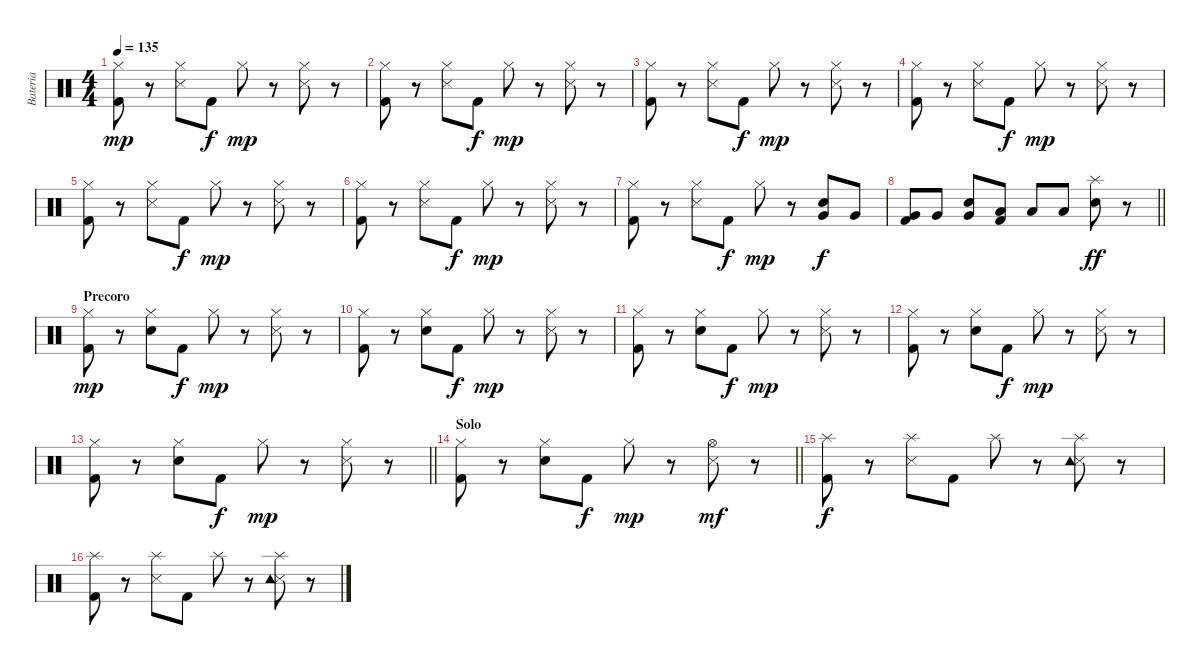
\track ("Bateria" "Bateria") {instrument percussion}
\staff {score}
\articulation defaults
\ts (4 4)
\tempo 135
\clef neutral
\ks c
("Hi-Hat (closed)" "Kick (hit) 2").8{dy mp} r.8 ("Hi-Hat (closed)" "Snare (side stick) 3").8 "Kick (hit) 2".8{dy f} "Hi-Hat (closed)".8{dy mp} r.8 ("Hi-Hat (closed)" "Snare (side stick) 3").8 r.8 |
("Hi-Hat (closed)" "Kick (hit) 2").8 r.8 ("Hi-Hat (closed)" "Snare (side stick) 3").8 "Kick (hit) 2".8{dy f} "Hi-Hat (closed)".8{dy mp} r.8 ("Hi-Hat (closed)" "Snare (side stick) 3").8 r.8 |
("Hi-Hat (closed)" "Kick (hit) 2").8 r.8 ("Hi-Hat (closed)" "Snare (side stick) 3").8 "Kick (hit) 2".8{dy f} "Hi-Hat (closed)".8{dy mp} r.8 ("Hi-Hat (closed)" "Snare (side stick) 3").8 r.8 |
("Hi-Hat (closed)" "Kick (hit) 2").8 r.8 ("Hi-Hat (closed)" "Snare (side stick) 3").8 "Kick (hit) 2".8{dy f} "Hi-Hat (closed)".8{dy mp} r.8 ("Hi-Hat (closed)" "Snare (side stick) 3").8 r.8 |
("Hi-Hat (closed)" "Kick (hit) 2").8 r.8 ("Hi-Hat (closed)" "Snare (side stick) 3").8 "Kick (hit) 2".8{dy f} "Hi-Hat (closed)".8{dy mp} r.8 ("Hi-Hat (closed)" "Snare (side stick) 3").8 r.8 |
("Hi-Hat (closed)" "Kick (hit) 2").8 r.8 ("Hi-Hat (closed)" "Snare (side stick) 3").8 "Kick (hit) 2".8{dy f} "Hi-Hat (closed)".8{dy mp} r.8 ("Hi-Hat (closed)" "Snare (side stick) 3").8 r.8 |
("Hi-Hat (closed)" "Kick (hit) 2").8 r.8 ("Hi-Hat (closed)" "Snare (side stick) 3").8 "Kick (hit) 2".8{dy f} "Hi-Hat (closed)".8{dy mp} r.8 ("Very Low Tom (hit)" "Snare (hit) 2").8{dy f} "Very Low Tom (hit)".8 |
\barLineRight lightlight
("Very Low Tom (hit)" "Kick (hit) 2").8 "Very Low Tom (hit)".8 ("Very Low Tom (hit)" "Snare (hit) 2").8 ("Low Floor Tom (hit)" "Kick (hit) 2").8 "Low Floor Tom (hit)".8 "Low Floor Tom (hit)".8 ("Splash (hit)" "Snare (hit) 2").8{dy ff} r.8 |
\section ("" "Precoro")
("Hi-Hat (closed)" "Kick (hit) 2").8{dy mp} r.8 ("Hi-Hat (closed)" "Snare (hit) 2").8 "Kick (hit) 2".8{dy f} "Hi-Hat (closed)".8{dy mp} r.8 ("Hi-Hat (closed)" "Snare (side stick) 3").8 r.8 |
("Hi-Hat (closed)" "Kick (hit) 2").8 r.8 ("Hi-Hat (closed)" "Snare (hit) 2").8 "Kick (hit) 2".8{dy f} "Hi-Hat (closed)".8{dy mp} r.8 ("Hi-Hat (closed)" "Snare (side stick) 3").8 r.8 |
("Hi-Hat (closed)" "Kick (hit) 2").8 r.8 ("Hi-Hat (closed)" "Snare (hit) 2").8 "Kick (hit) 2".8{dy f} "Hi-Hat (closed)".8{dy mp} r.8 ("Hi-Hat (closed)" "Snare (side stick) 3").8 r.8 |
("Hi-Hat (closed)" "Kick (hit) 2").8 r.8 ("Hi-Hat (closed)" "Snare (hit) 2").8 "Kick (hit) 2".8{dy f} "Hi-Hat (closed)".8{dy mp} r.8 ("Hi-Hat (closed)" "Snare (side stick) 3").8 r.8 |
\barLineRight lightlight
("Hi-Hat (closed)" "Kick (hit) 2").8 r.8 ("Hi-Hat (closed)" "Snare (hit) 2").8 "Kick (hit) 2".8{dy f} "Hi-Hat (closed)".8{dy mp} r.8 ("Hi-Hat (closed)" "Snare (side stick) 3").8 r.8 |
\section ("" "Solo")
\barLineRight lightlight
("Hi-Hat (closed)" "Kick (hit) 2").8 r.8 ("Hi-Hat (closed)" "Snare (hit) 2").8 "Kick (hit) 2".8{dy f} "Hi-Hat (closed)".8{dy mp} r.8 ("Hi-Hat (open)" "Snare (side stick) 3").8{dy mf} r.8 |
("Splash (hit)" "Kick (hit) 2").8{dy f} r.8 ("Splash (hit)" "Snare (side stick) 3").8 "Kick (hit) 2".8 "Splash (hit)".8 r.8 ("Splash (hit)" "Snare (side stick) 3" "Tambourine (hit)").8 r.8 |
("Splash (hit)" "Kick (hit) 2").8 r.8 ("Splash (hit)" "Snare (side stick) 3").8 "Kick (hit) 2".8 "Splash (hit)".8 r.8 ("Splash (hit)" "Snare (side stick) 3" "Tambourine (hit)").8 r.8
